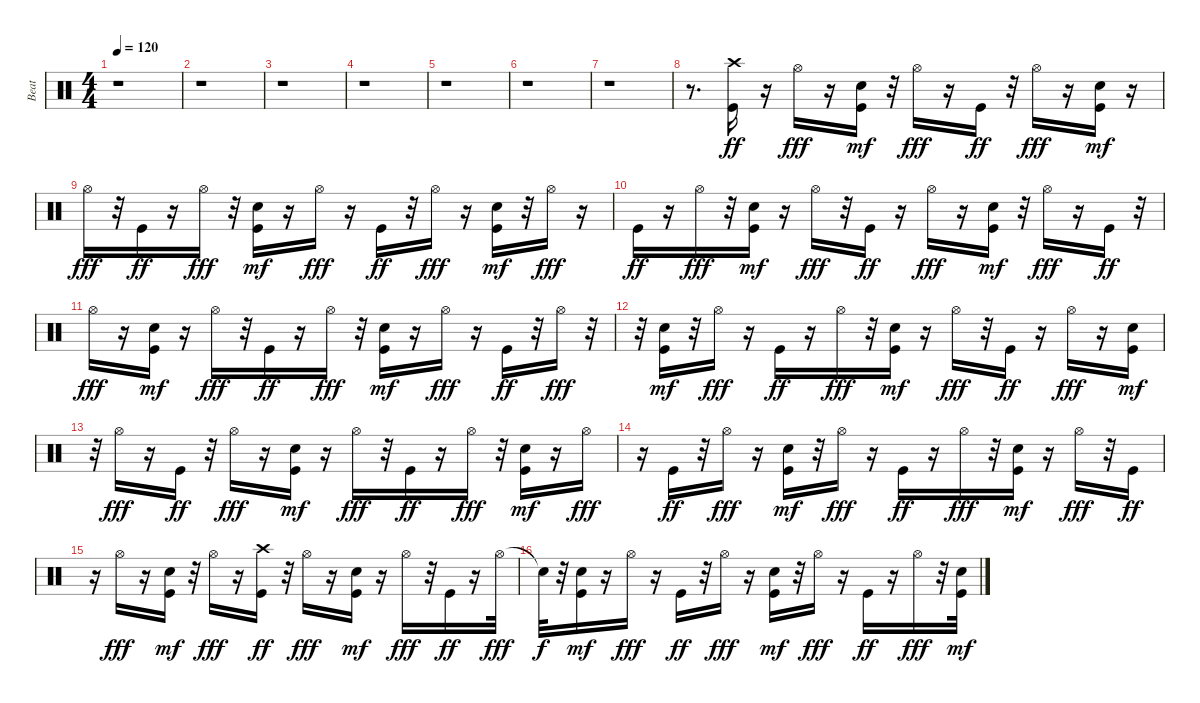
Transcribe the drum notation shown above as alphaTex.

\track ("Beat" "Beat") {instrument percussion}
\staff {score}
\articulation defaults
\ts (4 4)
\tempo 120
\clef neutral
\ks c
r.1{dy ff} |
r.1 |
r.1 |
r.1 |
r.1 |
r.1 |
r.1 |
r.8{d} ("Kick (hit)" "Crash high (hit)").16 r.16 "Hi-Hat (open)".16{dy fff} r.16 ("Kick (hit)" "Hand Clap (hit)").16{dy mf} r.32 "Hi-Hat (open)".16{dy fff} r.16 "Kick (hit)".16{dy ff} r.32 "Hi-Hat (open)".16{dy fff} r.16 ("Kick (hit)" "Hand Clap (hit)").16{dy mf} r.16 |
"Hi-Hat (open)".16{dy fff} r.32 "Kick (hit)".16{dy ff} r.16 "Hi-Hat (open)".16{dy fff} r.32 ("Kick (hit)" "Hand Clap (hit)").16{dy mf} r.16 "Hi-Hat (open)".16{dy fff} r.16 "Kick (hit)".16{dy ff} r.32 "Hi-Hat (open)".16{dy fff} r.16 ("Kick (hit)" "Hand Clap (hit)").16{dy mf} r.32 "Hi-Hat (open)".16{dy fff} r.16 |
"Kick (hit)".16{dy ff} r.16 "Hi-Hat (open)".16{dy fff} r.32 ("Kick (hit)" "Hand Clap (hit)").16{dy mf} r.16 "Hi-Hat (open)".16{dy fff} r.32 "Kick (hit)".16{dy ff} r.16 "Hi-Hat (open)".16{dy fff} r.16 ("Kick (hit)" "Hand Clap (hit)").16{dy mf} r.32 "Hi-Hat (open)".16{dy fff} r.16 "Kick (hit)".16{dy ff} r.32 |
"Hi-Hat (open)".16{dy fff} r.16 ("Kick (hit)" "Hand Clap (hit)").16{dy mf} r.16 "Hi-Hat (open)".16{dy fff} r.32 "Kick (hit)".16{dy ff} r.16 "Hi-Hat (open)".16{dy fff} r.32 ("Kick (hit)" "Hand Clap (hit)").16{dy mf} r.16 "Hi-Hat (open)".16{dy fff} r.16 "Kick (hit)".16{dy ff} r.32 "Hi-Hat (open)".16{dy fff} r.32 |
r.32 ("Kick (hit)" "Hand Clap (hit)").16{dy mf} r.32 "Hi-Hat (open)".16{dy fff} r.16 "Kick (hit)".16{dy ff} r.16 "Hi-Hat (open)".16{dy fff} r.32 ("Kick (hit)" "Hand Clap (hit)").16{dy mf} r.16 "Hi-Hat (open)".16{dy fff} r.32 "Kick (hit)".16{dy ff} r.16 "Hi-Hat (open)".16{dy fff} r.16 ("Kick (hit)" "Hand Clap (hit)").16{dy mf} |
r.32 "Hi-Hat (open)".16{dy fff} r.16 "Kick (hit)".16{dy ff} r.32 "Hi-Hat (open)".16{dy fff} r.16 ("Kick (hit)" "Hand Clap (hit)").16{dy mf} r.16 "Hi-Hat (open)".16{dy fff} r.32 "Kick (hit)".16{dy ff} r.16 "Hi-Hat (open)".16{dy fff} r.32 ("Kick (hit)" "Hand Clap (hit)").16{dy mf} r.16 "Hi-Hat (open)".16{dy fff} |
r.16 "Kick (hit)".16{dy ff} r.32 "Hi-Hat (open)".16{dy fff} r.16 ("Kick (hit)" "Hand Clap (hit)").16{dy mf} r.32 "Hi-Hat (open)".16{dy fff} r.16 "Kick (hit)".16{dy ff} r.16 "Hi-Hat (open)".16{dy fff} r.32 ("Kick (hit)" "Hand Clap (hit)").16{dy mf} r.16 "Hi-Hat (open)".16{dy fff} r.32 "Kick (hit)".16{dy ff} |
r.16 "Hi-Hat (open)".16{dy fff} r.16 ("Kick (hit)" "Hand Clap (hit)").16{dy mf} r.32 "Hi-Hat (open)".16{dy fff} r.16 ("Kick (hit)" "Crash high (hit)").16{dy ff} r.32 "Hi-Hat (open)".16{dy fff} r.16 ("Kick (hit)" "Hand Clap (hit)").16{dy mf} r.16 "Hi-Hat (open)".16{dy fff} r.32 "Kick (hit)".16{dy ff} r.16 "Hi-Hat (open)".32{dy fff} |
"Snare (hit)"{t}.32{dy f} r.32 ("Kick (hit)" "Hand Clap (hit)").16{dy mf} r.16 "Hi-Hat (open)".16{dy fff} r.16 "Kick (hit)".16{dy ff} r.32 "Hi-Hat (open)".16{dy fff} r.16 ("Kick (hit)" "Hand Clap (hit)").16{dy mf} r.32 "Hi-Hat (open)".16{dy fff} r.16 "Kick (hit)".16{dy ff} r.16 "Hi-Hat (open)".16{dy fff} r.32 ("Kick (hit)" "Hand Clap (hit)").32{dy mf}
